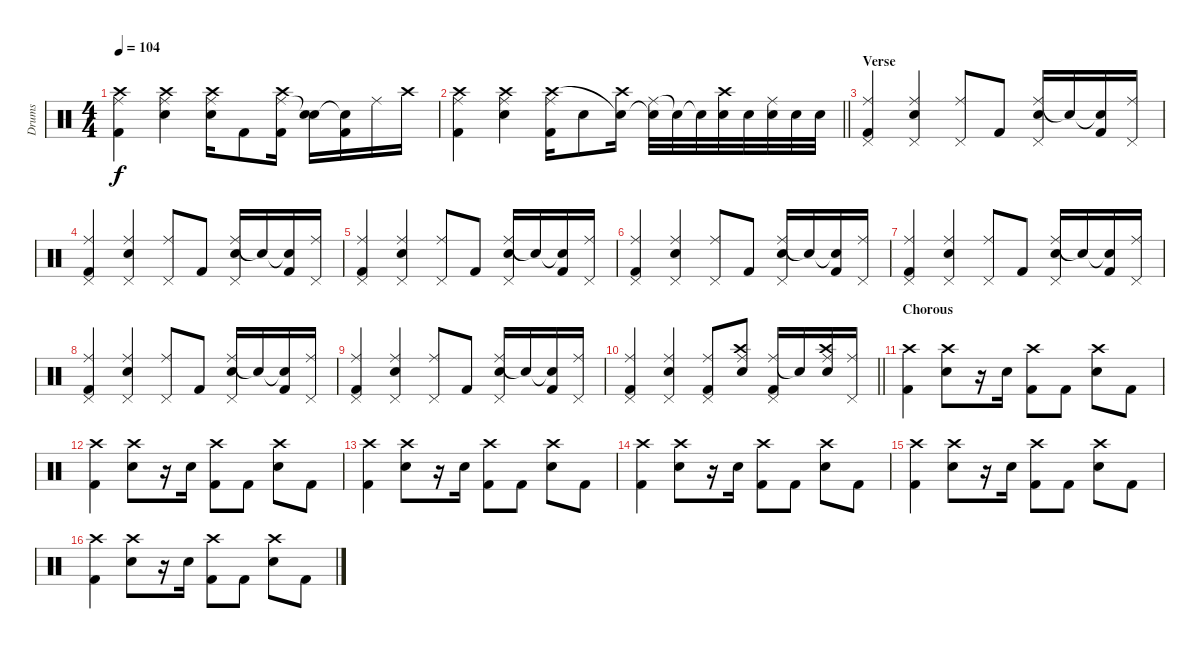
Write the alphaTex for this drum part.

\track ("Drums" "Drums") {instrument percussion}
\staff {score}
\articulation defaults
\ts (4 4)
\tempo 104
\clef neutral
\ks c
("Ride (middle)" "Crash high (hit)" "Kick (hit) 2").4{dy f} ("Ride (middle)" "Crash high (hit)" "Electric Snare (hit)").4 ("Ride (middle)" "Crash high (hit)" "Electric Snare (hit)").16 "Kick (hit) 2".8 ("Ride (middle)" "Crash high (hit)" "Kick (hit) 2").16 ("Snare (hit)"{t} "Electric Snare (hit)").16 ("Electric Snare (hit)"{t} "Kick (hit) 2").16 "Ride (middle)".16 "Crash high (hit)".16 |
\barLineRight lightlight
("Ride (middle)" "Crash high (hit)" "Kick (hit) 2").4 ("Ride (middle)" "Crash high (hit)" "Electric Snare (hit)").4 ("Ride (middle)" "Crash high (hit)" "Kick (hit) 2").16 "Electric Snare (hit)".8 ("Crash high (hit)" "Snare (hit)"{t}).16 ("Ride (middle)" "Electric Snare (hit)"{t}).32 "Electric Snare (hit)"{t}.32 "Snare (hit)"{t}.32 ("Crash high (hit)" "Electric Snare (hit)").32 "Electric Snare (hit)".32 ("Ride (middle)" "Electric Snare (hit)").32 "Electric Snare (hit)".32 "Electric Snare (hit)".32 |
\section ("" "Verse")
("Ride (middle)" "Pedal Hi-Hat (hit)" "Kick (hit) 2").4 ("Ride (middle)" "Pedal Hi-Hat (hit)" "Electric Snare (hit)").4 ("Ride (middle)" "Pedal Hi-Hat (hit)").8 "Kick (hit) 2".8 ("Ride (middle)" "Pedal Hi-Hat (hit)" "Electric Snare (hit)").16 "Snare (hit)"{t}.16 ("Electric Snare (hit)"{t} "Kick (hit) 2").16 ("Ride (middle)" "Pedal Hi-Hat (hit)").16 |
("Ride (middle)" "Pedal Hi-Hat (hit)" "Kick (hit) 2").4 ("Ride (middle)" "Pedal Hi-Hat (hit)" "Electric Snare (hit)").4 ("Ride (middle)" "Pedal Hi-Hat (hit)").8 "Kick (hit) 2".8 ("Ride (middle)" "Pedal Hi-Hat (hit)" "Electric Snare (hit)").16 "Snare (hit)"{t}.16 ("Electric Snare (hit)"{t} "Kick (hit) 2").16 ("Ride (middle)" "Pedal Hi-Hat (hit)").16 |
("Ride (middle)" "Pedal Hi-Hat (hit)" "Kick (hit) 2").4 ("Ride (middle)" "Pedal Hi-Hat (hit)" "Electric Snare (hit)").4 ("Ride (middle)" "Pedal Hi-Hat (hit)").8 "Kick (hit) 2".8 ("Ride (middle)" "Pedal Hi-Hat (hit)" "Electric Snare (hit)").16 "Snare (hit)"{t}.16 ("Electric Snare (hit)"{t} "Kick (hit) 2").16 ("Ride (middle)" "Pedal Hi-Hat (hit)").16 |
("Ride (middle)" "Pedal Hi-Hat (hit)" "Kick (hit) 2").4 ("Ride (middle)" "Pedal Hi-Hat (hit)" "Electric Snare (hit)").4 ("Ride (middle)" "Pedal Hi-Hat (hit)").8 "Kick (hit) 2".8 ("Ride (middle)" "Pedal Hi-Hat (hit)" "Electric Snare (hit)").16 "Snare (hit)"{t}.16 ("Electric Snare (hit)"{t} "Kick (hit) 2").16 ("Ride (middle)" "Pedal Hi-Hat (hit)").16 |
("Ride (middle)" "Pedal Hi-Hat (hit)" "Kick (hit) 2").4 ("Ride (middle)" "Pedal Hi-Hat (hit)" "Electric Snare (hit)").4 ("Ride (middle)" "Pedal Hi-Hat (hit)").8 "Kick (hit) 2".8 ("Ride (middle)" "Pedal Hi-Hat (hit)" "Electric Snare (hit)").16 "Snare (hit)"{t}.16 ("Electric Snare (hit)"{t} "Kick (hit) 2").16 ("Ride (middle)" "Pedal Hi-Hat (hit)").16 |
("Ride (middle)" "Pedal Hi-Hat (hit)" "Kick (hit) 2").4 ("Ride (middle)" "Pedal Hi-Hat (hit)" "Electric Snare (hit)").4 ("Ride (middle)" "Pedal Hi-Hat (hit)").8 "Kick (hit) 2".8 ("Ride (middle)" "Pedal Hi-Hat (hit)" "Electric Snare (hit)").16 "Snare (hit)"{t}.16 ("Electric Snare (hit)"{t} "Kick (hit) 2").16 ("Ride (middle)" "Pedal Hi-Hat (hit)").16 |
("Ride (middle)" "Pedal Hi-Hat (hit)" "Kick (hit) 2").4 ("Ride (middle)" "Pedal Hi-Hat (hit)" "Electric Snare (hit)").4 ("Ride (middle)" "Pedal Hi-Hat (hit)").8 "Kick (hit) 2".8 ("Ride (middle)" "Pedal Hi-Hat (hit)" "Electric Snare (hit)").16 "Snare (hit)"{t}.16 ("Electric Snare (hit)"{t} "Kick (hit) 2").16 ("Ride (middle)" "Pedal Hi-Hat (hit)").16 |
\barLineRight lightlight
("Ride (middle)" "Pedal Hi-Hat (hit)" "Kick (hit) 2").4 ("Ride (middle)" "Pedal Hi-Hat (hit)" "Electric Snare (hit)").4 ("Ride (middle)" "Pedal Hi-Hat (hit)" "Kick (hit) 2").8 ("Ride (middle)" "Crash high (hit)" "Electric Snare (hit)").8 ("Ride (middle)" "Pedal Hi-Hat (hit)" "Kick (hit) 2").16 "Snare (hit)"{t}.16 ("Ride (middle)" "Crash high (hit)" "Electric Snare (hit)").16 ("Ride (middle)" "Pedal Hi-Hat (hit)").16 |
\section ("" "Chorous")
("Crash high (hit)" "Kick (hit) 2").4 ("Crash high (hit)" "Electric Snare (hit)").8 r.16 "Electric Snare (hit)".16 ("Crash high (hit)" "Kick (hit) 2").8 "Kick (hit) 2".8 ("Crash high (hit)" "Electric Snare (hit)").8 "Kick (hit) 2".8 |
("Crash high (hit)" "Kick (hit) 2").4 ("Crash high (hit)" "Electric Snare (hit)").8 r.16 "Electric Snare (hit)".16 ("Crash high (hit)" "Kick (hit) 2").8 "Kick (hit) 2".8 ("Crash high (hit)" "Electric Snare (hit)").8 "Kick (hit) 2".8 |
("Crash high (hit)" "Kick (hit) 2").4 ("Crash high (hit)" "Electric Snare (hit)").8 r.16 "Electric Snare (hit)".16 ("Crash high (hit)" "Kick (hit) 2").8 "Kick (hit) 2".8 ("Crash high (hit)" "Electric Snare (hit)").8 "Kick (hit) 2".8 |
("Crash high (hit)" "Kick (hit) 2").4 ("Crash high (hit)" "Electric Snare (hit)").8 r.16 "Electric Snare (hit)".16 ("Crash high (hit)" "Kick (hit) 2").8 "Kick (hit) 2".8 ("Crash high (hit)" "Electric Snare (hit)").8 "Kick (hit) 2".8 |
("Crash high (hit)" "Kick (hit) 2").4 ("Crash high (hit)" "Electric Snare (hit)").8 r.16 "Electric Snare (hit)".16 ("Crash high (hit)" "Kick (hit) 2").8 "Kick (hit) 2".8 ("Crash high (hit)" "Electric Snare (hit)").8 "Kick (hit) 2".8 |
("Crash high (hit)" "Kick (hit) 2").4 ("Crash high (hit)" "Electric Snare (hit)").8 r.16 "Electric Snare (hit)".16 ("Crash high (hit)" "Kick (hit) 2").8 "Kick (hit) 2".8 ("Crash high (hit)" "Electric Snare (hit)").8 "Kick (hit) 2".8
